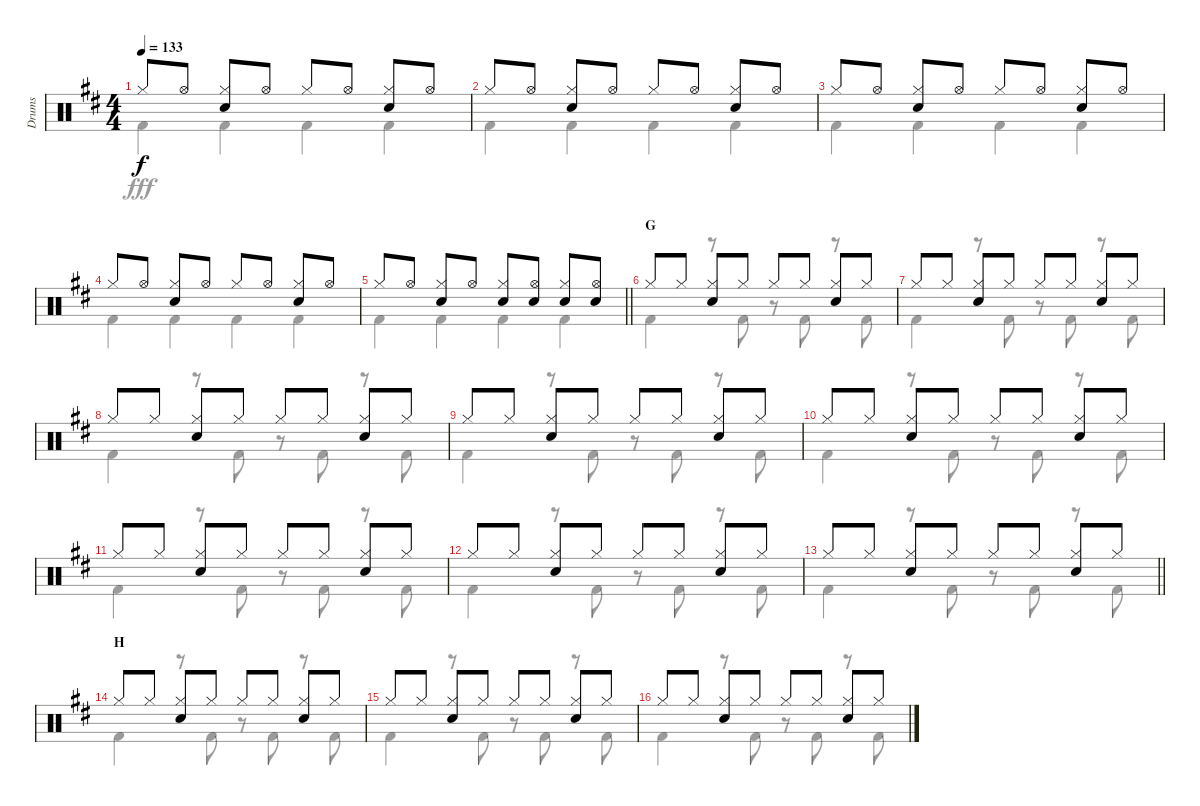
\track ("Drums" "Drums") {instrument percussion}
\staff {score}
\articulation defaults
\voice
\ts (4 4)
\tempo 133
\clef neutral
\ks d "Hi-Hat (closed)".8{dy f} "Hi-Hat (open)".8
("Hi-Hat (closed)" "Snare (hit) 2").8 "Hi-Hat (open)".8 "Hi-Hat (closed)".8 "Hi-Hat (open)".8 ("Hi-Hat (closed)" "Snare (hit) 2").8 "Hi-Hat (open)".8 |
"Hi-Hat (closed)".8 "Hi-Hat (open)".8 ("Hi-Hat (closed)" "Snare (hit) 2").8 "Hi-Hat (open)".8 "Hi-Hat (closed)".8 "Hi-Hat (open)".8 ("Hi-Hat (closed)" "Snare (hit) 2").8 "Hi-Hat (open)".8 |
"Hi-Hat (closed)".8 "Hi-Hat (open)".8 ("Hi-Hat (closed)" "Snare (hit) 2").8 "Hi-Hat (open)".8 "Hi-Hat (closed)".8 "Hi-Hat (open)".8 ("Hi-Hat (closed)" "Snare (hit) 2").8 "Hi-Hat (open)".8 |
"Hi-Hat (closed)".8 "Hi-Hat (open)".8 ("Hi-Hat (closed)" "Snare (hit) 2").8 "Hi-Hat (open)".8 "Hi-Hat (closed)".8 "Hi-Hat (open)".8 ("Hi-Hat (closed)" "Snare (hit) 2").8 "Hi-Hat (open)".8 |
\barLineRight lightlight "Hi-Hat (closed)".8 "Hi-Hat (open)".8
("Hi-Hat (closed)" "Snare (hit) 2").8 "Hi-Hat (open)".8 ("Hi-Hat (closed)" "Snare (hit) 2").8 ("Hi-Hat (open)" "Snare (hit) 2").8 ("Hi-Hat (closed)" "Snare (hit) 2").8 ("Hi-Hat (open)" "Snare (hit) 2").8 |
\section ("" "G")
"Hi-Hat (closed)".8 "Hi-Hat (closed)".8 ("Hi-Hat (closed)" "Snare (hit) 2").8 "Hi-Hat (closed)".8 "Hi-Hat (closed)".8 "Hi-Hat (closed)".8 ("Hi-Hat (closed)" "Snare (hit) 2").8 "Hi-Hat (closed)".8 |
"Hi-Hat (closed)".8 "Hi-Hat (closed)".8 ("Hi-Hat (closed)" "Snare (hit) 2").8 "Hi-Hat (closed)".8 "Hi-Hat (closed)".8 "Hi-Hat (closed)".8 ("Hi-Hat (closed)" "Snare (hit) 2").8 "Hi-Hat (closed)".8 |
"Hi-Hat (closed)".8 "Hi-Hat (closed)".8 ("Hi-Hat (closed)" "Snare (hit) 2").8 "Hi-Hat (closed)".8 "Hi-Hat (closed)".8 "Hi-Hat (closed)".8 ("Hi-Hat (closed)" "Snare (hit) 2").8 "Hi-Hat (closed)".8 |
"Hi-Hat (closed)".8 "Hi-Hat (closed)".8 ("Hi-Hat (closed)" "Snare (hit) 2").8 "Hi-Hat (closed)".8 "Hi-Hat (closed)".8 "Hi-Hat (closed)".8 ("Hi-Hat (closed)" "Snare (hit) 2").8 "Hi-Hat (closed)".8 |
"Hi-Hat (closed)".8 "Hi-Hat (closed)".8 ("Hi-Hat (closed)" "Snare (hit) 2").8 "Hi-Hat (closed)".8 "Hi-Hat (closed)".8 "Hi-Hat (closed)".8 ("Hi-Hat (closed)" "Snare (hit) 2").8 "Hi-Hat (closed)".8 |
"Hi-Hat (closed)".8 "Hi-Hat (closed)".8 ("Hi-Hat (closed)" "Snare (hit) 2").8 "Hi-Hat (closed)".8 "Hi-Hat (closed)".8 "Hi-Hat (closed)".8 ("Hi-Hat (closed)" "Snare (hit) 2").8 "Hi-Hat (closed)".8 |
"Hi-Hat (closed)".8 "Hi-Hat (closed)".8 ("Hi-Hat (closed)" "Snare (hit) 2").8 "Hi-Hat (closed)".8 "Hi-Hat (closed)".8 "Hi-Hat (closed)".8 ("Hi-Hat (closed)" "Snare (hit) 2").8 "Hi-Hat (closed)".8 |
\barLineRight lightlight "Hi-Hat (closed)".8 "Hi-Hat (closed)".8
("Hi-Hat (closed)" "Snare (hit) 2").8 "Hi-Hat (closed)".8 "Hi-Hat (closed)".8 "Hi-Hat (closed)".8 ("Hi-Hat (closed)" "Snare (hit) 2").8 "Hi-Hat (closed)".8 |
\section ("" "H")
"Hi-Hat (closed)".8 "Hi-Hat (closed)".8 ("Hi-Hat (closed)" "Snare (hit) 2").8 "Hi-Hat (closed)".8 "Hi-Hat (closed)".8 "Hi-Hat (closed)".8 ("Hi-Hat (closed)" "Snare (hit) 2").8 "Hi-Hat (closed)".8 |
"Hi-Hat (closed)".8 "Hi-Hat (closed)".8 ("Hi-Hat (closed)" "Snare (hit) 2").8 "Hi-Hat (closed)".8 "Hi-Hat (closed)".8 "Hi-Hat (closed)".8 ("Hi-Hat (closed)" "Snare (hit) 2").8 "Hi-Hat (closed)".8 |
"Hi-Hat (closed)".8 "Hi-Hat (closed)".8 ("Hi-Hat (closed)" "Snare (hit) 2").8 "Hi-Hat (closed)".8 "Hi-Hat (closed)".8 "Hi-Hat (closed)".8 ("Hi-Hat (closed)" "Snare (hit) 2").8 "Hi-Hat (closed)".8
\voice
\clef neutral
\ottava regular
\simile none
\ks d "Kick (hit) 2".4{dy fff} "Kick (hit) 2".4 "Kick (hit) 2".4 "Kick (hit) 2".4
|
"Kick (hit) 2".4 "Kick (hit) 2".4 "Kick (hit) 2".4 "Kick (hit) 2".4 |
"Kick (hit) 2".4 "Kick (hit) 2".4 "Kick (hit) 2".4 "Kick (hit) 2".4 |
"Kick (hit) 2".4 "Kick (hit) 2".4 "Kick (hit) 2".4 "Kick (hit) 2".4 |
\barLineRight lightlight "Kick (hit) 2".4 "Kick (hit) 2".4 "Kick (hit) 2".4 "Kick (hit) 2".4
|
"Kick (hit) 2".4 r.8 "Kick (hit) 2".8 r.8 "Kick (hit) 2".8 r.8 "Kick (hit) 2".8 |
"Kick (hit) 2".4 r.8 "Kick (hit) 2".8 r.8 "Kick (hit) 2".8 r.8 "Kick (hit) 2".8 |
"Kick (hit) 2".4 r.8 "Kick (hit) 2".8 r.8 "Kick (hit) 2".8 r.8 "Kick (hit) 2".8 |
"Kick (hit) 2".4 r.8 "Kick (hit) 2".8 r.8 "Kick (hit) 2".8 r.8 "Kick (hit) 2".8 |
"Kick (hit) 2".4 r.8 "Kick (hit) 2".8 r.8 "Kick (hit) 2".8 r.8 "Kick (hit) 2".8 |
"Kick (hit) 2".4 r.8 "Kick (hit) 2".8 r.8 "Kick (hit) 2".8 r.8 "Kick (hit) 2".8 |
"Kick (hit) 2".4 r.8 "Kick (hit) 2".8 r.8 "Kick (hit) 2".8 r.8 "Kick (hit) 2".8 |
\barLineRight lightlight "Kick (hit) 2".4
r.8 "Kick (hit) 2".8 r.8 "Kick (hit) 2".8 r.8 "Kick (hit) 2".8 |
"Kick (hit) 2".4 r.8 "Kick (hit) 2".8 r.8 "Kick (hit) 2".8 r.8 "Kick (hit) 2".8 |
"Kick (hit) 2".4 r.8 "Kick (hit) 2".8 r.8 "Kick (hit) 2".8 r.8 "Kick (hit) 2".8 |
"Kick (hit) 2".4 r.8 "Kick (hit) 2".8 r.8 "Kick (hit) 2".8 r.8 "Kick (hit) 2".8
